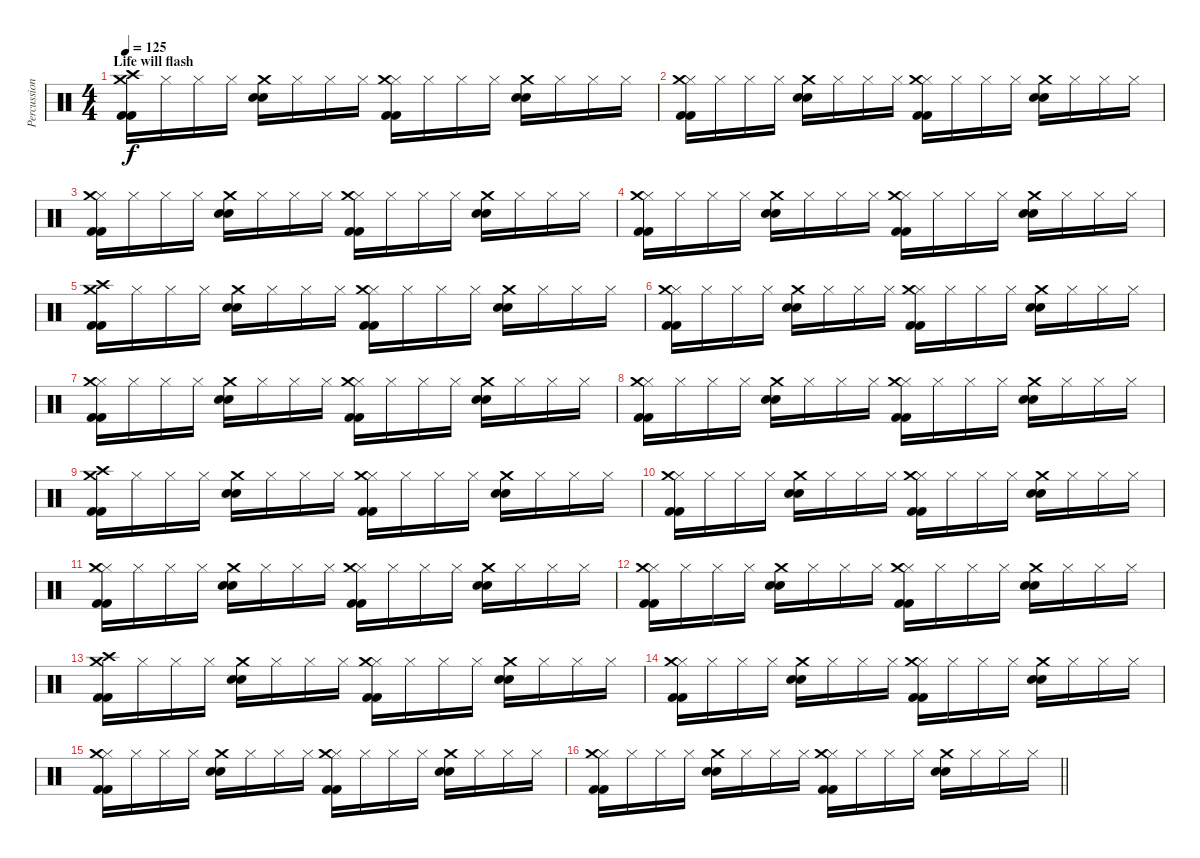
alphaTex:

\track ("Percussion2" "Percussion") {instrument percussion}
\staff {score}
\articulation defaults
\ts (4 4)
\section ("" "Life will flash")
\tempo 125
\clef neutral
\ks c
("Crash high (hit)" "Crash medium (hit)" "Kick (hit) 2" "Kick (hit) 2").16{dy f} "Hi-Hat (closed)".16 "Hi-Hat (closed)".16 "Hi-Hat (closed)".16 ("Crash medium (hit)" "Electric Snare (hit)" "Electric Snare (hit)").16 "Hi-Hat (closed)".16 "Hi-Hat (closed)".16 "Hi-Hat (closed)".16 ("Hi-Hat (closed)" "Crash medium (hit)" "Kick (hit) 2" "Kick (hit) 2").16 "Hi-Hat (closed)".16 "Hi-Hat (closed)".16 "Hi-Hat (closed)".16 ("Crash medium (hit)" "Electric Snare (hit)" "Electric Snare (hit)").16 "Hi-Hat (closed)".16 "Hi-Hat (closed)".16 "Hi-Hat (closed)".16 |
("Hi-Hat (closed)" "Crash medium (hit)" "Kick (hit) 2" "Kick (hit) 2").16 "Hi-Hat (closed)".16 "Hi-Hat (closed)".16 "Hi-Hat (closed)".16 ("Crash medium (hit)" "Electric Snare (hit)" "Electric Snare (hit)").16 "Hi-Hat (closed)".16 "Hi-Hat (closed)".16 "Hi-Hat (closed)".16 ("Hi-Hat (closed)" "Crash medium (hit)" "Kick (hit) 2" "Kick (hit) 2").16 "Hi-Hat (closed)".16 "Hi-Hat (closed)".16 "Hi-Hat (closed)".16 ("Crash medium (hit)" "Electric Snare (hit)" "Electric Snare (hit)").16 "Hi-Hat (closed)".16 "Hi-Hat (closed)".16 "Hi-Hat (closed)".16 |
("Hi-Hat (closed)" "Crash medium (hit)" "Kick (hit) 2" "Kick (hit) 2").16 "Hi-Hat (closed)".16 "Hi-Hat (closed)".16 "Hi-Hat (closed)".16 ("Crash medium (hit)" "Electric Snare (hit)" "Electric Snare (hit)").16 "Hi-Hat (closed)".16 "Hi-Hat (closed)".16 "Hi-Hat (closed)".16 ("Hi-Hat (closed)" "Crash medium (hit)" "Kick (hit) 2" "Kick (hit) 2").16 "Hi-Hat (closed)".16 "Hi-Hat (closed)".16 "Hi-Hat (closed)".16 ("Crash medium (hit)" "Electric Snare (hit)" "Electric Snare (hit)").16 "Hi-Hat (closed)".16 "Hi-Hat (closed)".16 "Hi-Hat (closed)".16 |
("Hi-Hat (closed)" "Crash medium (hit)" "Kick (hit) 2" "Kick (hit) 2").16 "Hi-Hat (closed)".16 "Hi-Hat (closed)".16 "Hi-Hat (closed)".16 ("Crash medium (hit)" "Electric Snare (hit)" "Electric Snare (hit)").16 "Hi-Hat (closed)".16 "Hi-Hat (closed)".16 "Hi-Hat (closed)".16 ("Hi-Hat (closed)" "Crash medium (hit)" "Kick (hit) 2" "Kick (hit) 2").16 "Hi-Hat (closed)".16 "Hi-Hat (closed)".16 "Hi-Hat (closed)".16 ("Crash medium (hit)" "Electric Snare (hit)" "Electric Snare (hit)").16 "Hi-Hat (closed)".16 "Hi-Hat (closed)".16 "Hi-Hat (closed)".16 |
("Crash high (hit)" "Crash medium (hit)" "Kick (hit) 2" "Kick (hit) 2").16 "Hi-Hat (closed)".16 "Hi-Hat (closed)".16 "Hi-Hat (closed)".16 ("Crash medium (hit)" "Electric Snare (hit)" "Electric Snare (hit)").16 "Hi-Hat (closed)".16 "Hi-Hat (closed)".16 "Hi-Hat (closed)".16 ("Hi-Hat (closed)" "Crash medium (hit)" "Kick (hit) 2" "Kick (hit) 2").16 "Hi-Hat (closed)".16 "Hi-Hat (closed)".16 "Hi-Hat (closed)".16 ("Crash medium (hit)" "Electric Snare (hit)" "Electric Snare (hit)").16 "Hi-Hat (closed)".16 "Hi-Hat (closed)".16 "Hi-Hat (closed)".16 |
("Hi-Hat (closed)" "Crash medium (hit)" "Kick (hit) 2" "Kick (hit) 2").16 "Hi-Hat (closed)".16 "Hi-Hat (closed)".16 "Hi-Hat (closed)".16 ("Crash medium (hit)" "Electric Snare (hit)" "Electric Snare (hit)").16 "Hi-Hat (closed)".16 "Hi-Hat (closed)".16 "Hi-Hat (closed)".16 ("Hi-Hat (closed)" "Crash medium (hit)" "Kick (hit) 2" "Kick (hit) 2").16 "Hi-Hat (closed)".16 "Hi-Hat (closed)".16 "Hi-Hat (closed)".16 ("Crash medium (hit)" "Electric Snare (hit)" "Electric Snare (hit)").16 "Hi-Hat (closed)".16 "Hi-Hat (closed)".16 "Hi-Hat (closed)".16 |
("Hi-Hat (closed)" "Crash medium (hit)" "Kick (hit) 2" "Kick (hit) 2").16 "Hi-Hat (closed)".16 "Hi-Hat (closed)".16 "Hi-Hat (closed)".16 ("Crash medium (hit)" "Electric Snare (hit)" "Electric Snare (hit)").16 "Hi-Hat (closed)".16 "Hi-Hat (closed)".16 "Hi-Hat (closed)".16 ("Hi-Hat (closed)" "Crash medium (hit)" "Kick (hit) 2" "Kick (hit) 2").16 "Hi-Hat (closed)".16 "Hi-Hat (closed)".16 "Hi-Hat (closed)".16 ("Crash medium (hit)" "Electric Snare (hit)" "Electric Snare (hit)").16 "Hi-Hat (closed)".16 "Hi-Hat (closed)".16 "Hi-Hat (closed)".16 |
("Hi-Hat (closed)" "Crash medium (hit)" "Kick (hit) 2" "Kick (hit) 2").16 "Hi-Hat (closed)".16 "Hi-Hat (closed)".16 "Hi-Hat (closed)".16 ("Crash medium (hit)" "Electric Snare (hit)" "Electric Snare (hit)").16 "Hi-Hat (closed)".16 "Hi-Hat (closed)".16 "Hi-Hat (closed)".16 ("Hi-Hat (closed)" "Crash medium (hit)" "Kick (hit) 2" "Kick (hit) 2").16 "Hi-Hat (closed)".16 "Hi-Hat (closed)".16 "Hi-Hat (closed)".16 ("Crash medium (hit)" "Electric Snare (hit)" "Electric Snare (hit)").16 "Hi-Hat (closed)".16 "Hi-Hat (closed)".16 "Hi-Hat (closed)".16 |
("Crash high (hit)" "Crash medium (hit)" "Kick (hit) 2" "Kick (hit) 2").16 "Hi-Hat (closed)".16 "Hi-Hat (closed)".16 "Hi-Hat (closed)".16 ("Crash medium (hit)" "Electric Snare (hit)" "Electric Snare (hit)").16 "Hi-Hat (closed)".16 "Hi-Hat (closed)".16 "Hi-Hat (closed)".16 ("Hi-Hat (closed)" "Crash medium (hit)" "Kick (hit) 2" "Kick (hit) 2").16 "Hi-Hat (closed)".16 "Hi-Hat (closed)".16 "Hi-Hat (closed)".16 ("Crash medium (hit)" "Electric Snare (hit)" "Electric Snare (hit)").16 "Hi-Hat (closed)".16 "Hi-Hat (closed)".16 "Hi-Hat (closed)".16 |
("Hi-Hat (closed)" "Crash medium (hit)" "Kick (hit) 2" "Kick (hit) 2").16 "Hi-Hat (closed)".16 "Hi-Hat (closed)".16 "Hi-Hat (closed)".16 ("Crash medium (hit)" "Electric Snare (hit)" "Electric Snare (hit)").16 "Hi-Hat (closed)".16 "Hi-Hat (closed)".16 "Hi-Hat (closed)".16 ("Hi-Hat (closed)" "Crash medium (hit)" "Kick (hit) 2" "Kick (hit) 2").16 "Hi-Hat (closed)".16 "Hi-Hat (closed)".16 "Hi-Hat (closed)".16 ("Crash medium (hit)" "Electric Snare (hit)" "Electric Snare (hit)").16 "Hi-Hat (closed)".16 "Hi-Hat (closed)".16 "Hi-Hat (closed)".16 |
("Hi-Hat (closed)" "Crash medium (hit)" "Kick (hit) 2" "Kick (hit) 2").16 "Hi-Hat (closed)".16 "Hi-Hat (closed)".16 "Hi-Hat (closed)".16 ("Crash medium (hit)" "Electric Snare (hit)" "Electric Snare (hit)").16 "Hi-Hat (closed)".16 "Hi-Hat (closed)".16 "Hi-Hat (closed)".16 ("Hi-Hat (closed)" "Crash medium (hit)" "Kick (hit) 2" "Kick (hit) 2").16 "Hi-Hat (closed)".16 "Hi-Hat (closed)".16 "Hi-Hat (closed)".16 ("Crash medium (hit)" "Electric Snare (hit)" "Electric Snare (hit)").16 "Hi-Hat (closed)".16 "Hi-Hat (closed)".16 "Hi-Hat (closed)".16 |
("Hi-Hat (closed)" "Crash medium (hit)" "Kick (hit) 2" "Kick (hit) 2").16 "Hi-Hat (closed)".16 "Hi-Hat (closed)".16 "Hi-Hat (closed)".16 ("Crash medium (hit)" "Electric Snare (hit)" "Electric Snare (hit)").16 "Hi-Hat (closed)".16 "Hi-Hat (closed)".16 "Hi-Hat (closed)".16 ("Hi-Hat (closed)" "Crash medium (hit)" "Kick (hit) 2" "Kick (hit) 2").16 "Hi-Hat (closed)".16 "Hi-Hat (closed)".16 "Hi-Hat (closed)".16 ("Crash medium (hit)" "Electric Snare (hit)" "Electric Snare (hit)").16 "Hi-Hat (closed)".16 "Hi-Hat (closed)".16 "Hi-Hat (closed)".16 |
("Crash high (hit)" "Crash medium (hit)" "Kick (hit) 2" "Kick (hit) 2").16 "Hi-Hat (closed)".16 "Hi-Hat (closed)".16 "Hi-Hat (closed)".16 ("Crash medium (hit)" "Electric Snare (hit)" "Electric Snare (hit)").16 "Hi-Hat (closed)".16 "Hi-Hat (closed)".16 "Hi-Hat (closed)".16 ("Hi-Hat (closed)" "Crash medium (hit)" "Kick (hit) 2" "Kick (hit) 2").16 "Hi-Hat (closed)".16 "Hi-Hat (closed)".16 "Hi-Hat (closed)".16 ("Crash medium (hit)" "Electric Snare (hit)" "Electric Snare (hit)").16 "Hi-Hat (closed)".16 "Hi-Hat (closed)".16 "Hi-Hat (closed)".16 |
("Hi-Hat (closed)" "Crash medium (hit)" "Kick (hit) 2" "Kick (hit) 2").16 "Hi-Hat (closed)".16 "Hi-Hat (closed)".16 "Hi-Hat (closed)".16 ("Crash medium (hit)" "Electric Snare (hit)" "Electric Snare (hit)").16 "Hi-Hat (closed)".16 "Hi-Hat (closed)".16 "Hi-Hat (closed)".16 ("Hi-Hat (closed)" "Crash medium (hit)" "Kick (hit) 2" "Kick (hit) 2").16 "Hi-Hat (closed)".16 "Hi-Hat (closed)".16 "Hi-Hat (closed)".16 ("Crash medium (hit)" "Electric Snare (hit)" "Electric Snare (hit)").16 "Hi-Hat (closed)".16 "Hi-Hat (closed)".16 "Hi-Hat (closed)".16 |
("Hi-Hat (closed)" "Crash medium (hit)" "Kick (hit) 2" "Kick (hit) 2").16 "Hi-Hat (closed)".16 "Hi-Hat (closed)".16 "Hi-Hat (closed)".16 ("Crash medium (hit)" "Electric Snare (hit)" "Electric Snare (hit)").16 "Hi-Hat (closed)".16 "Hi-Hat (closed)".16 "Hi-Hat (closed)".16 ("Hi-Hat (closed)" "Crash medium (hit)" "Kick (hit) 2" "Kick (hit) 2").16 "Hi-Hat (closed)".16 "Hi-Hat (closed)".16 "Hi-Hat (closed)".16 ("Crash medium (hit)" "Electric Snare (hit)" "Electric Snare (hit)").16 "Hi-Hat (closed)".16 "Hi-Hat (closed)".16 "Hi-Hat (closed)".16 |
\barLineRight lightlight
("Hi-Hat (closed)" "Crash medium (hit)" "Kick (hit) 2" "Kick (hit) 2").16 "Hi-Hat (closed)".16 "Hi-Hat (closed)".16 "Hi-Hat (closed)".16 ("Crash medium (hit)" "Electric Snare (hit)" "Electric Snare (hit)").16 "Hi-Hat (closed)".16 "Hi-Hat (closed)".16 "Hi-Hat (closed)".16 ("Hi-Hat (closed)" "Crash medium (hit)" "Kick (hit) 2" "Kick (hit) 2").16 "Hi-Hat (closed)".16 "Hi-Hat (closed)".16 "Hi-Hat (closed)".16 ("Crash medium (hit)" "Electric Snare (hit)" "Electric Snare (hit)").16 "Hi-Hat (closed)".16 "Hi-Hat (closed)".16 "Hi-Hat (closed)".16
